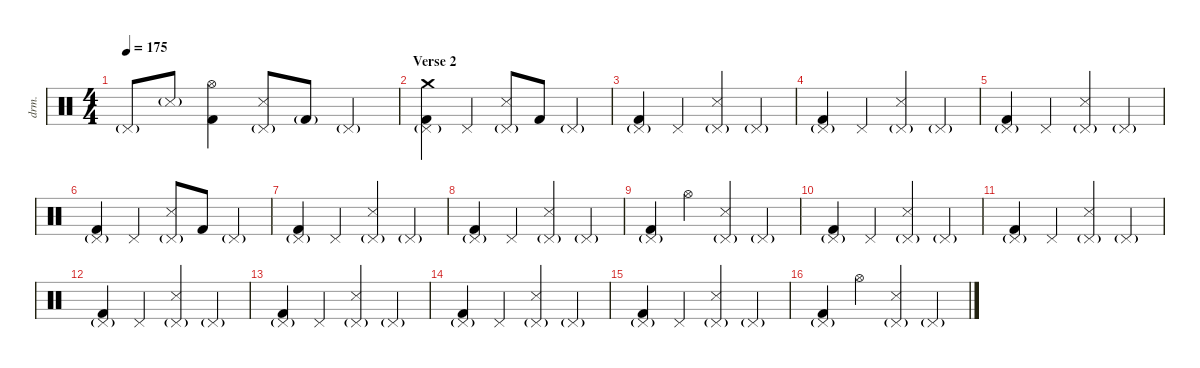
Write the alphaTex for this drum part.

\defaultSystemsLayout 4
\hideDynamics
\bracketExtendMode nobrackets
\otherSystemsTrackNameOrientation horizontal
\track ("Percussion" "drm.") {instrument percussion}
\staff {score}
\articulation defaults
\ts (4 4)
\tempo 175
\clef neutral
\ks c "Pedal Hi-Hat (hit)"{g}.8{dy f} "Snare (side stick) 3"{g}.8
("Hi-Hat (open)" "Kick (hit) 2").4{dy mp} ("Pedal Hi-Hat (hit)"{g} "Snare (side stick) 3").8{dy f} "Kick (hit) 2"{g}.8 "Pedal Hi-Hat (hit)"{g}.4 |
\section ("" "Verse 2")
("Crash medium (hit)" "Pedal Hi-Hat (hit)"{g} "Kick (hit) 2").4 "Pedal Hi-Hat (hit)".4 ("Pedal Hi-Hat (hit)"{g} "Snare (side stick) 3").8 "Kick (hit) 2".8 "Pedal Hi-Hat (hit)"{g}.4 |
("Pedal Hi-Hat (hit)"{g} "Kick (hit) 2").4 "Pedal Hi-Hat (hit)".4 ("Pedal Hi-Hat (hit)"{g} "Snare (side stick) 3").4 "Pedal Hi-Hat (hit)"{g}.4 |
("Pedal Hi-Hat (hit)"{g} "Kick (hit) 2").4 "Pedal Hi-Hat (hit)".4 ("Pedal Hi-Hat (hit)"{g} "Snare (side stick) 3").4 "Pedal Hi-Hat (hit)"{g}.4 |
("Pedal Hi-Hat (hit)"{g} "Kick (hit) 2").4 "Pedal Hi-Hat (hit)".4 ("Pedal Hi-Hat (hit)"{g} "Snare (side stick) 3").4 "Pedal Hi-Hat (hit)"{g}.4 |
("Pedal Hi-Hat (hit)"{g} "Kick (hit) 2").4 "Pedal Hi-Hat (hit)".4 ("Pedal Hi-Hat (hit)"{g} "Snare (side stick) 3").8 "Kick (hit) 2".8 "Pedal Hi-Hat (hit)"{g}.4 |
("Pedal Hi-Hat (hit)"{g} "Kick (hit) 2").4 "Pedal Hi-Hat (hit)".4 ("Pedal Hi-Hat (hit)"{g} "Snare (side stick) 3").4 "Pedal Hi-Hat (hit)"{g}.4 |
("Pedal Hi-Hat (hit)"{g} "Kick (hit) 2").4 "Pedal Hi-Hat (hit)".4 ("Pedal Hi-Hat (hit)"{g} "Snare (side stick) 3").4 "Pedal Hi-Hat (hit)"{g}.4 |
("Pedal Hi-Hat (hit)"{g} "Kick (hit) 2").4 "Hi-Hat (open)".4 ("Pedal Hi-Hat (hit)"{g} "Snare (side stick) 3").4 "Pedal Hi-Hat (hit)"{g}.4 |
("Pedal Hi-Hat (hit)"{g} "Kick (hit) 2").4 "Pedal Hi-Hat (hit)".4 ("Pedal Hi-Hat (hit)"{g} "Snare (side stick) 3").4 "Pedal Hi-Hat (hit)"{g}.4 |
("Pedal Hi-Hat (hit)"{g} "Kick (hit) 2").4 "Pedal Hi-Hat (hit)".4 ("Pedal Hi-Hat (hit)"{g} "Snare (side stick) 3").4 "Pedal Hi-Hat (hit)"{g}.4 |
("Pedal Hi-Hat (hit)"{g} "Kick (hit) 2").4 "Pedal Hi-Hat (hit)".4 ("Pedal Hi-Hat (hit)"{g} "Snare (side stick) 3").4 "Pedal Hi-Hat (hit)"{g}.4 |
("Pedal Hi-Hat (hit)"{g} "Kick (hit) 2").4 "Pedal Hi-Hat (hit)".4 ("Pedal Hi-Hat (hit)"{g} "Snare (side stick) 3").4 "Pedal Hi-Hat (hit)"{g}.4 |
("Pedal Hi-Hat (hit)"{g} "Kick (hit) 2").4 "Pedal Hi-Hat (hit)".4 ("Pedal Hi-Hat (hit)"{g} "Snare (side stick) 3").4 "Pedal Hi-Hat (hit)"{g}.4 |
("Pedal Hi-Hat (hit)"{g} "Kick (hit) 2").4 "Pedal Hi-Hat (hit)".4 ("Pedal Hi-Hat (hit)"{g} "Snare (side stick) 3").4 "Pedal Hi-Hat (hit)"{g}.4 |
("Pedal Hi-Hat (hit)"{g} "Kick (hit) 2").4 "Hi-Hat (open)".4 ("Pedal Hi-Hat (hit)"{g} "Snare (side stick) 3").4 "Pedal Hi-Hat (hit)"{g}.4
